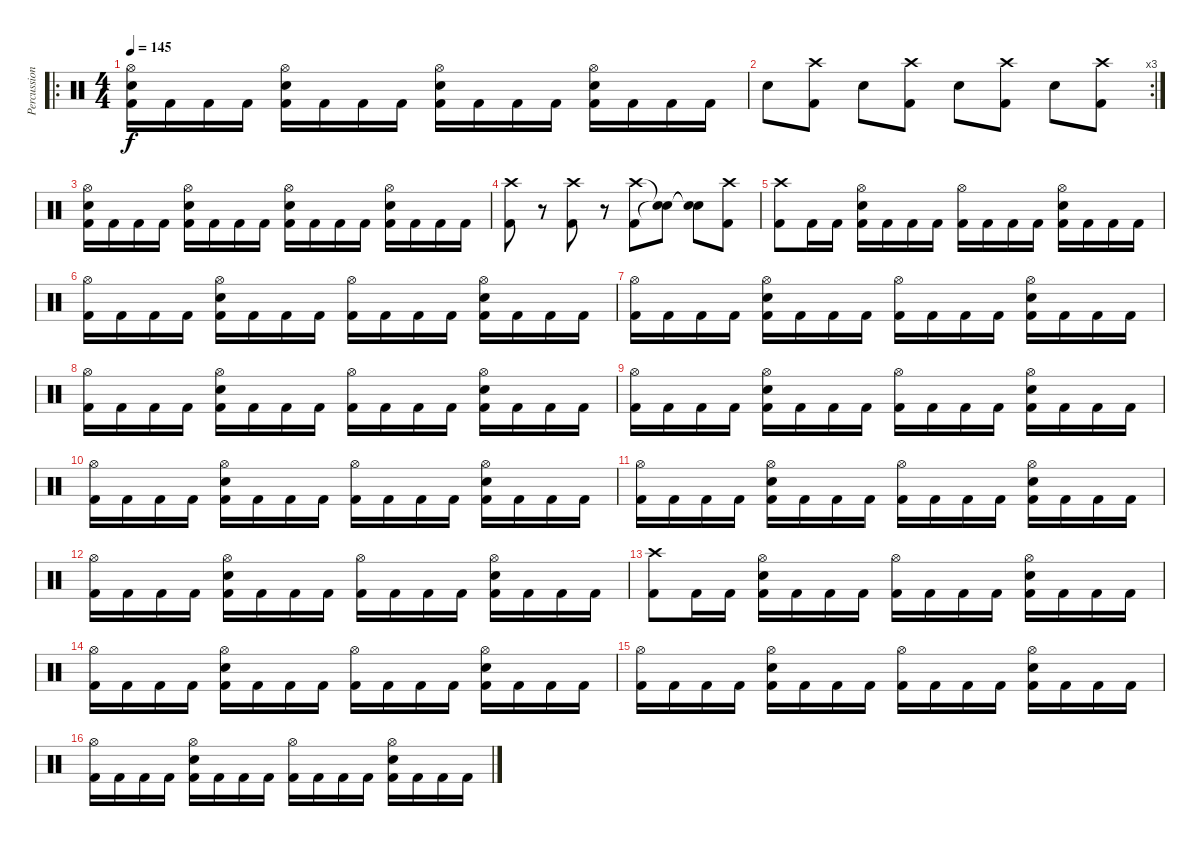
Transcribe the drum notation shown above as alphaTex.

\track ("Percussion" "Percussion") {instrument percussion}
\staff {score}
\articulation defaults
\ro
\ts (4 4)
\tempo 145
\clef neutral
\ks c
("Hi-Hat (open)" "Snare (hit) 2" "Kick (hit) 2").16{dy f} "Kick (hit) 2".16 "Kick (hit) 2".16 "Kick (hit) 2".16 ("Hi-Hat (open)" "Snare (hit) 2" "Kick (hit) 2").16 "Kick (hit) 2".16 "Kick (hit) 2".16 "Kick (hit) 2".16 ("Hi-Hat (open)" "Snare (hit) 2" "Kick (hit) 2").16 "Kick (hit) 2".16 "Kick (hit) 2".16 "Kick (hit) 2".16 ("Hi-Hat (open)" "Snare (hit) 2" "Kick (hit) 2").16 "Kick (hit) 2".16 "Kick (hit) 2".16 "Kick (hit) 2".16 |
\rc 3 "Snare (hit) 2".8
("Crash high (hit)" "Kick (hit) 2").8 "Snare (hit) 2".8 ("Crash high (hit)" "Kick (hit) 2").8 "Snare (hit) 2".8 ("Crash high (hit)" "Kick (hit) 2").8 "Snare (hit) 2".8 ("Crash high (hit)" "Kick (hit) 2").8 |
("Hi-Hat (open)" "Snare (hit) 2" "Kick (hit) 2").16 "Kick (hit) 2".16 "Kick (hit) 2".16 "Kick (hit) 2".16 ("Hi-Hat (open)" "Snare (hit) 2" "Kick (hit) 2").16 "Kick (hit) 2".16 "Kick (hit) 2".16 "Kick (hit) 2".16 ("Hi-Hat (open)" "Snare (hit) 2" "Kick (hit) 2").16 "Kick (hit) 2".16 "Kick (hit) 2".16 "Kick (hit) 2".16 ("Hi-Hat (open)" "Snare (hit) 2" "Kick (hit) 2").16 "Kick (hit) 2".16 "Kick (hit) 2".16 "Kick (hit) 2".16 |
("Crash high (hit)" "Kick (hit) 2").8 r.8 ("Crash high (hit)" "Kick (hit) 2").8 r.8 ("Crash high (hit)" "Kick (hit) 2").8 ("Snare (hit)"{t} "Snare (hit)"{t}).8 ("Snare (hit)"{t} "Snare (hit)"{t}).8 ("Crash high (hit)" "Kick (hit) 2").8 |
("Crash high (hit)" "Kick (hit) 2").8 "Kick (hit) 2".16 "Kick (hit) 2".16 ("Hi-Hat (open)" "Snare (hit) 2" "Kick (hit) 2").16 "Kick (hit) 2".16 "Kick (hit) 2".16 "Kick (hit) 2".16 ("Hi-Hat (open)" "Kick (hit) 2").16 "Kick (hit) 2".16 "Kick (hit) 2".16 "Kick (hit) 2".16 ("Hi-Hat (open)" "Snare (hit) 2" "Kick (hit) 2").16 "Kick (hit) 2".16 "Kick (hit) 2".16 "Kick (hit) 2".16 |
("Hi-Hat (open)" "Kick (hit) 2").16 "Kick (hit) 2".16 "Kick (hit) 2".16 "Kick (hit) 2".16 ("Hi-Hat (open)" "Snare (hit) 2" "Kick (hit) 2").16 "Kick (hit) 2".16 "Kick (hit) 2".16 "Kick (hit) 2".16 ("Hi-Hat (open)" "Kick (hit) 2").16 "Kick (hit) 2".16 "Kick (hit) 2".16 "Kick (hit) 2".16 ("Hi-Hat (open)" "Snare (hit) 2" "Kick (hit) 2").16 "Kick (hit) 2".16 "Kick (hit) 2".16 "Kick (hit) 2".16 |
("Hi-Hat (open)" "Kick (hit) 2").16 "Kick (hit) 2".16 "Kick (hit) 2".16 "Kick (hit) 2".16 ("Hi-Hat (open)" "Snare (hit) 2" "Kick (hit) 2").16 "Kick (hit) 2".16 "Kick (hit) 2".16 "Kick (hit) 2".16 ("Hi-Hat (open)" "Kick (hit) 2").16 "Kick (hit) 2".16 "Kick (hit) 2".16 "Kick (hit) 2".16 ("Hi-Hat (open)" "Snare (hit) 2" "Kick (hit) 2").16 "Kick (hit) 2".16 "Kick (hit) 2".16 "Kick (hit) 2".16 |
("Hi-Hat (open)" "Kick (hit) 2").16 "Kick (hit) 2".16 "Kick (hit) 2".16 "Kick (hit) 2".16 ("Hi-Hat (open)" "Snare (hit) 2" "Kick (hit) 2").16 "Kick (hit) 2".16 "Kick (hit) 2".16 "Kick (hit) 2".16 ("Hi-Hat (open)" "Kick (hit) 2").16 "Kick (hit) 2".16 "Kick (hit) 2".16 "Kick (hit) 2".16 ("Hi-Hat (open)" "Snare (hit) 2" "Kick (hit) 2").16 "Kick (hit) 2".16 "Kick (hit) 2".16 "Kick (hit) 2".16 |
("Hi-Hat (open)" "Kick (hit) 2").16 "Kick (hit) 2".16 "Kick (hit) 2".16 "Kick (hit) 2".16 ("Hi-Hat (open)" "Snare (hit) 2" "Kick (hit) 2").16 "Kick (hit) 2".16 "Kick (hit) 2".16 "Kick (hit) 2".16 ("Hi-Hat (open)" "Kick (hit) 2").16 "Kick (hit) 2".16 "Kick (hit) 2".16 "Kick (hit) 2".16 ("Hi-Hat (open)" "Snare (hit) 2" "Kick (hit) 2").16 "Kick (hit) 2".16 "Kick (hit) 2".16 "Kick (hit) 2".16 |
("Hi-Hat (open)" "Kick (hit) 2").16 "Kick (hit) 2".16 "Kick (hit) 2".16 "Kick (hit) 2".16 ("Hi-Hat (open)" "Snare (hit) 2" "Kick (hit) 2").16 "Kick (hit) 2".16 "Kick (hit) 2".16 "Kick (hit) 2".16 ("Hi-Hat (open)" "Kick (hit) 2").16 "Kick (hit) 2".16 "Kick (hit) 2".16 "Kick (hit) 2".16 ("Hi-Hat (open)" "Snare (hit) 2" "Kick (hit) 2").16 "Kick (hit) 2".16 "Kick (hit) 2".16 "Kick (hit) 2".16 |
("Hi-Hat (open)" "Kick (hit) 2").16 "Kick (hit) 2".16 "Kick (hit) 2".16 "Kick (hit) 2".16 ("Hi-Hat (open)" "Snare (hit) 2" "Kick (hit) 2").16 "Kick (hit) 2".16 "Kick (hit) 2".16 "Kick (hit) 2".16 ("Hi-Hat (open)" "Kick (hit) 2").16 "Kick (hit) 2".16 "Kick (hit) 2".16 "Kick (hit) 2".16 ("Hi-Hat (open)" "Snare (hit) 2" "Kick (hit) 2").16 "Kick (hit) 2".16 "Kick (hit) 2".16 "Kick (hit) 2".16 |
("Hi-Hat (open)" "Kick (hit) 2").16 "Kick (hit) 2".16 "Kick (hit) 2".16 "Kick (hit) 2".16 ("Hi-Hat (open)" "Snare (hit) 2" "Kick (hit) 2").16 "Kick (hit) 2".16 "Kick (hit) 2".16 "Kick (hit) 2".16 ("Hi-Hat (open)" "Kick (hit) 2").16 "Kick (hit) 2".16 "Kick (hit) 2".16 "Kick (hit) 2".16 ("Hi-Hat (open)" "Snare (hit) 2" "Kick (hit) 2").16 "Kick (hit) 2".16 "Kick (hit) 2".16 "Kick (hit) 2".16 |
("Crash high (hit)" "Kick (hit) 2").8 "Kick (hit) 2".16 "Kick (hit) 2".16 ("Hi-Hat (open)" "Snare (hit) 2" "Kick (hit) 2").16 "Kick (hit) 2".16 "Kick (hit) 2".16 "Kick (hit) 2".16 ("Hi-Hat (open)" "Kick (hit) 2").16 "Kick (hit) 2".16 "Kick (hit) 2".16 "Kick (hit) 2".16 ("Hi-Hat (open)" "Snare (hit) 2" "Kick (hit) 2").16 "Kick (hit) 2".16 "Kick (hit) 2".16 "Kick (hit) 2".16 |
("Hi-Hat (open)" "Kick (hit) 2").16 "Kick (hit) 2".16 "Kick (hit) 2".16 "Kick (hit) 2".16 ("Hi-Hat (open)" "Snare (hit) 2" "Kick (hit) 2").16 "Kick (hit) 2".16 "Kick (hit) 2".16 "Kick (hit) 2".16 ("Hi-Hat (open)" "Kick (hit) 2").16 "Kick (hit) 2".16 "Kick (hit) 2".16 "Kick (hit) 2".16 ("Hi-Hat (open)" "Snare (hit) 2" "Kick (hit) 2").16 "Kick (hit) 2".16 "Kick (hit) 2".16 "Kick (hit) 2".16 |
("Hi-Hat (open)" "Kick (hit) 2").16 "Kick (hit) 2".16 "Kick (hit) 2".16 "Kick (hit) 2".16 ("Hi-Hat (open)" "Snare (hit) 2" "Kick (hit) 2").16 "Kick (hit) 2".16 "Kick (hit) 2".16 "Kick (hit) 2".16 ("Hi-Hat (open)" "Kick (hit) 2").16 "Kick (hit) 2".16 "Kick (hit) 2".16 "Kick (hit) 2".16 ("Hi-Hat (open)" "Snare (hit) 2" "Kick (hit) 2").16 "Kick (hit) 2".16 "Kick (hit) 2".16 "Kick (hit) 2".16 |
("Hi-Hat (open)" "Kick (hit) 2").16 "Kick (hit) 2".16 "Kick (hit) 2".16 "Kick (hit) 2".16 ("Hi-Hat (open)" "Snare (hit) 2" "Kick (hit) 2").16 "Kick (hit) 2".16 "Kick (hit) 2".16 "Kick (hit) 2".16 ("Hi-Hat (open)" "Kick (hit) 2").16 "Kick (hit) 2".16 "Kick (hit) 2".16 "Kick (hit) 2".16 ("Hi-Hat (open)" "Snare (hit) 2" "Kick (hit) 2").16 "Kick (hit) 2".16 "Kick (hit) 2".16 "Kick (hit) 2".16
